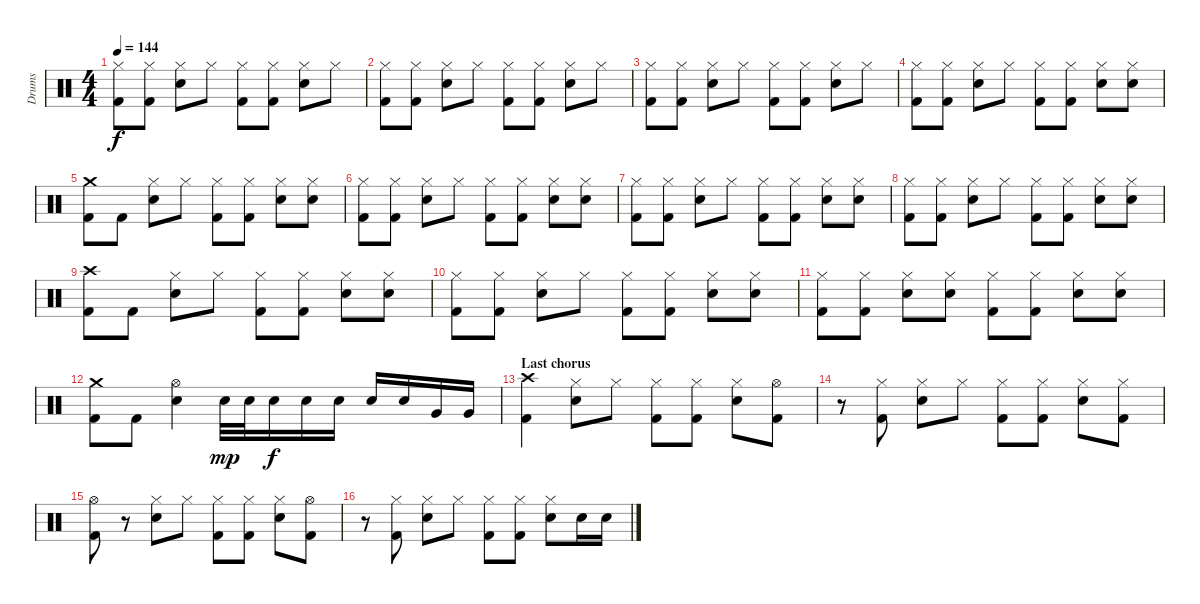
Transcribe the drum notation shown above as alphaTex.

\track ("Drums" "Drums") {instrument percussion}
\staff {score}
\articulation defaults
\ts (4 4)
\tempo 144
\clef neutral
\ks c
("Hi-Hat (closed)" "Kick (hit) 2").8{dy f} ("Hi-Hat (closed)" "Kick (hit) 2").8 ("Hi-Hat (closed)" "Snare (hit) 2").8 "Hi-Hat (closed)".8 ("Hi-Hat (closed)" "Kick (hit) 2").8 ("Hi-Hat (closed)" "Kick (hit) 2").8 ("Hi-Hat (closed)" "Snare (hit) 2").8 "Hi-Hat (closed)".8 |
("Hi-Hat (closed)" "Kick (hit) 2").8 ("Hi-Hat (closed)" "Kick (hit) 2").8 ("Hi-Hat (closed)" "Snare (hit) 2").8 "Hi-Hat (closed)".8 ("Hi-Hat (closed)" "Kick (hit) 2").8 ("Hi-Hat (closed)" "Kick (hit) 2").8 ("Hi-Hat (closed)" "Snare (hit) 2").8 "Hi-Hat (closed)".8 |
("Hi-Hat (closed)" "Kick (hit) 2").8 ("Hi-Hat (closed)" "Kick (hit) 2").8 ("Hi-Hat (closed)" "Snare (hit) 2").8 "Hi-Hat (closed)".8 ("Hi-Hat (closed)" "Kick (hit) 2").8 ("Hi-Hat (closed)" "Kick (hit) 2").8 ("Hi-Hat (closed)" "Snare (hit) 2").8 "Hi-Hat (closed)".8 |
("Hi-Hat (closed)" "Kick (hit) 2").8 ("Hi-Hat (closed)" "Kick (hit) 2").8 ("Hi-Hat (closed)" "Snare (hit) 2").8 "Hi-Hat (closed)".8 ("Hi-Hat (closed)" "Kick (hit) 2").8 ("Hi-Hat (closed)" "Kick (hit) 2").8 ("Hi-Hat (closed)" "Snare (hit) 2").8 ("Hi-Hat (closed)" "Snare (hit) 2").8 |
("Crash medium (hit)" "Kick (hit) 2").8 "Kick (hit) 2".8 ("Hi-Hat (closed)" "Snare (hit) 2").8 "Hi-Hat (closed)".8 ("Hi-Hat (closed)" "Kick (hit) 2").8 ("Hi-Hat (closed)" "Kick (hit) 2").8 ("Hi-Hat (closed)" "Snare (hit) 2").8 ("Hi-Hat (closed)" "Snare (hit) 2").8 |
("Hi-Hat (closed)" "Kick (hit) 2").8 ("Hi-Hat (closed)" "Kick (hit) 2").8 ("Hi-Hat (closed)" "Snare (hit) 2").8 "Hi-Hat (closed)".8 ("Hi-Hat (closed)" "Kick (hit) 2").8 ("Hi-Hat (closed)" "Kick (hit) 2").8 ("Hi-Hat (closed)" "Snare (hit) 2").8 ("Hi-Hat (closed)" "Snare (hit) 2").8 |
("Hi-Hat (closed)" "Kick (hit) 2").8 ("Hi-Hat (closed)" "Kick (hit) 2").8 ("Hi-Hat (closed)" "Snare (hit) 2").8 "Hi-Hat (closed)".8 ("Hi-Hat (closed)" "Kick (hit) 2").8 ("Hi-Hat (closed)" "Kick (hit) 2").8 ("Hi-Hat (closed)" "Snare (hit) 2").8 ("Hi-Hat (closed)" "Snare (hit) 2").8 |
("Hi-Hat (closed)" "Kick (hit) 2").8 ("Hi-Hat (closed)" "Kick (hit) 2").8 ("Hi-Hat (closed)" "Snare (hit) 2").8 "Hi-Hat (closed)".8 ("Hi-Hat (closed)" "Kick (hit) 2").8 ("Hi-Hat (closed)" "Kick (hit) 2").8 ("Hi-Hat (closed)" "Snare (hit) 2").8 ("Hi-Hat (closed)" "Snare (hit) 2").8 |
("Crash high (hit)" "Kick (hit) 2").8 "Kick (hit) 2".8 ("Hi-Hat (closed)" "Snare (hit) 2").8 "Hi-Hat (closed)".8 ("Hi-Hat (closed)" "Kick (hit) 2").8 ("Hi-Hat (closed)" "Kick (hit) 2").8 ("Hi-Hat (closed)" "Snare (hit) 2").8 ("Hi-Hat (closed)" "Snare (hit) 2").8 |
("Hi-Hat (closed)" "Kick (hit) 2").8 ("Hi-Hat (closed)" "Kick (hit) 2").8 ("Hi-Hat (closed)" "Snare (hit) 2").8 "Hi-Hat (closed)".8 ("Hi-Hat (closed)" "Kick (hit) 2").8 ("Hi-Hat (closed)" "Kick (hit) 2").8 ("Hi-Hat (closed)" "Snare (hit) 2").8 ("Hi-Hat (closed)" "Snare (hit) 2").8 |
("Hi-Hat (closed)" "Kick (hit) 2").8 ("Hi-Hat (closed)" "Kick (hit) 2").8 ("Hi-Hat (closed)" "Snare (hit) 2").8 ("Hi-Hat (closed)" "Snare (hit) 2").8 ("Hi-Hat (closed)" "Kick (hit) 2").8 ("Hi-Hat (closed)" "Kick (hit) 2").8 ("Hi-Hat (closed)" "Snare (hit) 2").8 ("Hi-Hat (closed)" "Snare (hit) 2").8 |
("Crash medium (hit)" "Kick (hit) 2").8 "Kick (hit) 2".8 ("Hi-Hat (open)" "Snare (hit) 2").4 "Snare (hit) 2".32{dy mp} "Snare (hit) 2".32 "Snare (hit) 2".16{dy f} "Snare (hit) 2".16 "Snare (hit) 2".16 "Snare (hit) 2".16 "Snare (hit) 2".16 "Very Low Tom (hit)".16 "Very Low Tom (hit)".16 |
\section ("" "Last chorus")
("Crash high (hit)" "Kick (hit) 2").4 ("Hi-Hat (closed)" "Snare (hit) 2").8 "Hi-Hat (closed)".8 ("Hi-Hat (closed)" "Kick (hit) 2").8 ("Hi-Hat (closed)" "Kick (hit) 2").8 ("Hi-Hat (closed)" "Snare (hit) 2").8 ("Hi-Hat (open)" "Kick (hit) 2").8 |
r.8 ("Hi-Hat (closed)" "Kick (hit) 2").8 ("Hi-Hat (closed)" "Snare (hit) 2").8 "Hi-Hat (closed)".8 ("Hi-Hat (closed)" "Kick (hit) 2").8 ("Hi-Hat (closed)" "Kick (hit) 2").8 ("Hi-Hat (closed)" "Snare (hit) 2").8 ("Hi-Hat (closed)" "Kick (hit) 2").8 |
("Hi-Hat (open)" "Kick (hit) 2").8 r.8 ("Hi-Hat (closed)" "Snare (hit) 2").8 "Hi-Hat (closed)".8 ("Hi-Hat (closed)" "Kick (hit) 2").8 ("Hi-Hat (closed)" "Kick (hit) 2").8 ("Hi-Hat (closed)" "Snare (hit) 2").8 ("Hi-Hat (open)" "Kick (hit) 2").8 |
r.8 ("Hi-Hat (closed)" "Kick (hit) 2").8 ("Hi-Hat (closed)" "Snare (hit) 2").8 "Hi-Hat (closed)".8 ("Hi-Hat (closed)" "Kick (hit) 2").8 ("Hi-Hat (closed)" "Kick (hit) 2").8 ("Hi-Hat (closed)" "Snare (hit) 2").8 "Snare (hit) 2".16 "Snare (hit) 2".16
